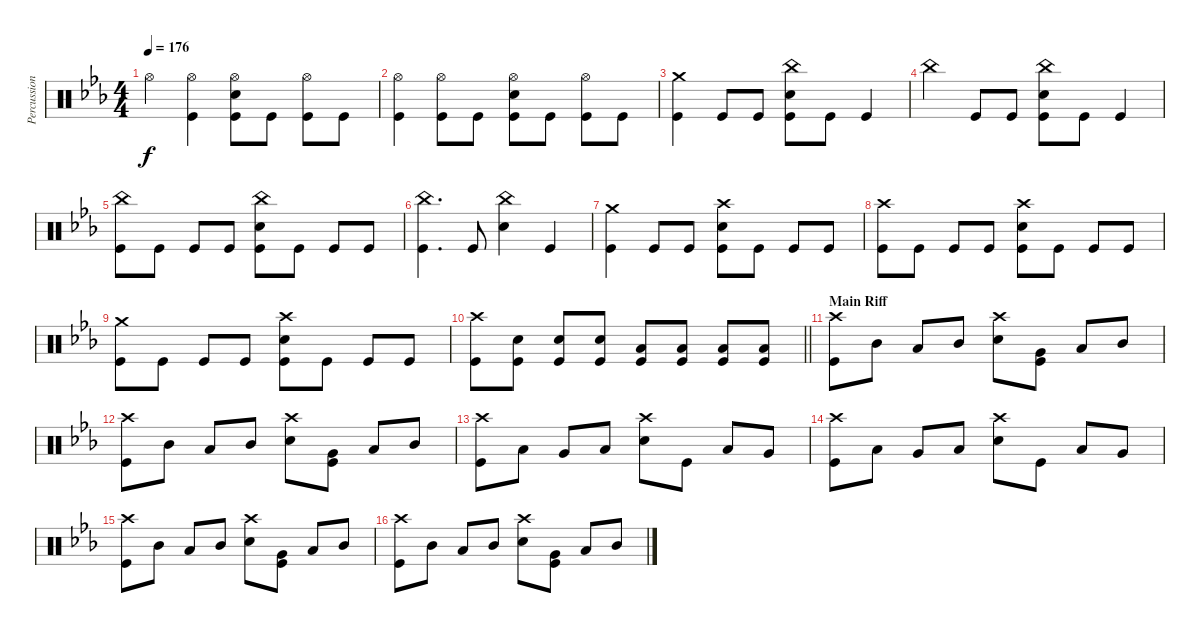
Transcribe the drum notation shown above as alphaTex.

\track ("Percussion" "Percussion") {instrument percussion}
\staff {score}
\articulation defaults
\ts (4 4)
\tempo 176
\clef neutral
\ks eb "Hi-Hat (open)".4{dy f}
("Hi-Hat (open)" "Kick (hit)").4 ("Hi-Hat (open)" "Electric Snare (hit)" "Kick (hit)").8 "Kick (hit)".8 ("Hi-Hat (open)" "Kick (hit)").8 "Kick (hit)".8 |
("Hi-Hat (open)" "Kick (hit)").4 ("Hi-Hat (open)" "Kick (hit)").8 "Kick (hit)".8 ("Hi-Hat (open)" "Electric Snare (hit)" "Kick (hit)").8 "Kick (hit)".8 ("Hi-Hat (open)" "Kick (hit)").8 "Kick (hit)".8 |
("Crash medium (hit)" "Kick (hit)").4 "Kick (hit)".8 "Kick (hit)".8 ("China (hit)" "Electric Snare (hit)" "Kick (hit)").8 "Kick (hit)".8 "Kick (hit)".4 |
"China (hit)".4 "Kick (hit)".8 "Kick (hit)".8 ("China (hit)" "Electric Snare (hit)" "Kick (hit)").8 "Kick (hit)".8 "Kick (hit)".4 |
("China (hit)" "Kick (hit)").8 "Kick (hit)".8 "Kick (hit)".8 "Kick (hit)".8 ("China (hit)" "Electric Snare (hit)" "Kick (hit)").8 "Kick (hit)".8 "Kick (hit)".8 "Kick (hit)".8 |
("China (hit)" "Kick (hit)").4{d} "Kick (hit)".8 ("China (hit)" "Electric Snare (hit)").4 "Kick (hit)".4 |
("Crash medium (hit)" "Kick (hit)").4 "Kick (hit)".8 "Kick (hit)".8 ("Crash high (hit)" "Electric Snare (hit)" "Kick (hit)").8 "Kick (hit)".8 "Kick (hit)".8 "Kick (hit)".8 |
("Crash high (hit)" "Kick (hit)").8 "Kick (hit)".8 "Kick (hit)".8 "Kick (hit)".8 ("Crash high (hit)" "Electric Snare (hit)" "Kick (hit)").8 "Kick (hit)".8 "Kick (hit)".8 "Kick (hit)".8 |
("Crash medium (hit)" "Kick (hit)").8 "Kick (hit)".8 "Kick (hit)".8 "Kick (hit)".8 ("Crash high (hit)" "Electric Snare (hit)" "Kick (hit)").8 "Kick (hit)".8 "Kick (hit)".8 "Kick (hit)".8 |
\barLineRight lightlight
("Crash high (hit)" "Kick (hit)").8 ("Electric Snare (hit)" "Kick (hit)").8 ("Electric Snare (hit)" "Kick (hit)").8 ("Electric Snare (hit)" "Kick (hit)").8 ("Low Floor Tom (hit)" "Kick (hit)").8 ("Low Floor Tom (hit)" "Kick (hit)").8 ("Low Floor Tom (hit)" "Kick (hit)").8 ("Low Floor Tom (hit)" "Kick (hit)").8 |
\section ("" "Main Riff")
("Crash high (hit)" "Kick (hit)").8 "Mid Tom (hit)".8 "Low Tom (hit)".8 "Mid Tom (hit)".8 ("Crash high (hit)" "Electric Snare (hit)").8 ("Very Low Tom (hit)" "Kick (hit)").8 "Low Tom (hit)".8 "Mid Tom (hit)".8 |
("Crash high (hit)" "Kick (hit)").8 "Mid Tom (hit)".8 "Low Tom (hit)".8 "Mid Tom (hit)".8 ("Crash high (hit)" "Electric Snare (hit)").8 ("Very Low Tom (hit)" "Kick (hit)").8 "Low Tom (hit)".8 "Mid Tom (hit)".8 |
("Crash high (hit)" "Kick (hit)").8 "Low Tom (hit)".8 "Very Low Tom (hit)".8 "Low Tom (hit)".8 ("Crash high (hit)" "Electric Snare (hit)").8 "Kick (hit)".8 "Low Floor Tom (hit)".8 "Very Low Tom (hit)".8 |
("Crash high (hit)" "Kick (hit)").8 "Low Tom (hit)".8 "Very Low Tom (hit)".8 "Low Tom (hit)".8 ("Crash high (hit)" "Electric Snare (hit)").8 "Kick (hit)".8 "Low Floor Tom (hit)".8 "Very Low Tom (hit)".8 |
("Crash high (hit)" "Kick (hit)").8 "Mid Tom (hit)".8 "Low Tom (hit)".8 "Mid Tom (hit)".8 ("Crash high (hit)" "Electric Snare (hit)").8 ("Very Low Tom (hit)" "Kick (hit)").8 "Low Tom (hit)".8 "Mid Tom (hit)".8 |
("Crash high (hit)" "Kick (hit)").8 "Mid Tom (hit)".8 "Low Tom (hit)".8 "Mid Tom (hit)".8 ("Crash high (hit)" "Electric Snare (hit)").8 ("Very Low Tom (hit)" "Kick (hit)").8 "Low Tom (hit)".8 "Mid Tom (hit)".8
